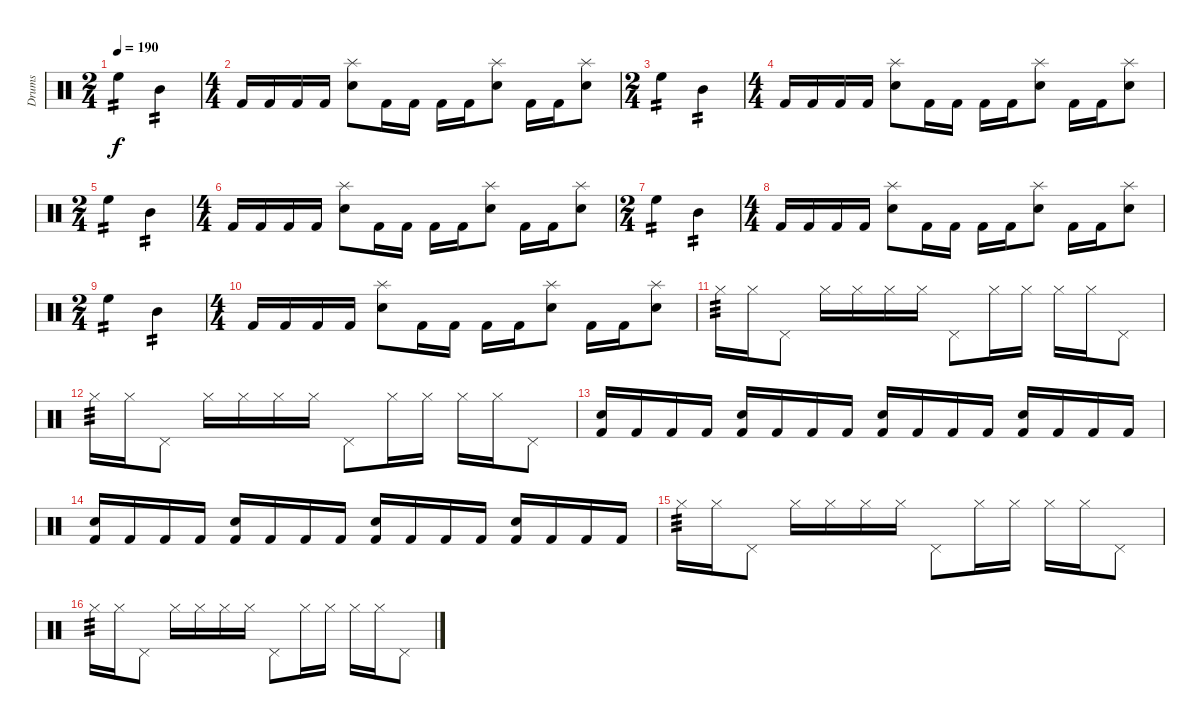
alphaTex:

\track ("Drums" "Drums") {instrument percussion}
\staff {score}
\articulation defaults
\ts (2 4)
\tempo 190
\clef neutral
\ks c "High Floor Tom (hit)".4{tp 2 dy f} "Mid Tom (hit)".4{tp 2}
|
\ts (4 4)
"Kick (hit) 2".16 "Kick (hit) 2".16 "Kick (hit) 2".16 "Kick (hit) 2".16 ("Splash (hit)" "Snare (hit) 2").8 "Kick (hit) 2".16 "Kick (hit) 2".16 "Kick (hit) 2".16 "Kick (hit) 2".16 ("Splash (hit)" "Snare (hit) 2").8 "Kick (hit) 2".16 "Kick (hit) 2".16 ("Splash (hit)" "Snare (hit) 2").8 |
\ts (2 4)
"High Floor Tom (hit)".4{tp 2} "Mid Tom (hit)".4{tp 2} |
\ts (4 4)
"Kick (hit) 2".16 "Kick (hit) 2".16 "Kick (hit) 2".16 "Kick (hit) 2".16 ("Splash (hit)" "Snare (hit) 2").8 "Kick (hit) 2".16 "Kick (hit) 2".16 "Kick (hit) 2".16 "Kick (hit) 2".16 ("Splash (hit)" "Snare (hit) 2").8 "Kick (hit) 2".16 "Kick (hit) 2".16 ("Splash (hit)" "Snare (hit) 2").8 |
\ts (2 4)
"High Floor Tom (hit)".4{tp 2} "Mid Tom (hit)".4{tp 2} |
\ts (4 4)
"Kick (hit) 2".16 "Kick (hit) 2".16 "Kick (hit) 2".16 "Kick (hit) 2".16 ("Splash (hit)" "Snare (hit) 2").8 "Kick (hit) 2".16 "Kick (hit) 2".16 "Kick (hit) 2".16 "Kick (hit) 2".16 ("Splash (hit)" "Snare (hit) 2").8 "Kick (hit) 2".16 "Kick (hit) 2".16 ("Splash (hit)" "Snare (hit) 2").8 |
\ts (2 4)
"High Floor Tom (hit)".4{tp 2} "Mid Tom (hit)".4{tp 2} |
\ts (4 4)
"Kick (hit) 2".16 "Kick (hit) 2".16 "Kick (hit) 2".16 "Kick (hit) 2".16 ("Splash (hit)" "Snare (hit) 2").8 "Kick (hit) 2".16 "Kick (hit) 2".16 "Kick (hit) 2".16 "Kick (hit) 2".16 ("Splash (hit)" "Snare (hit) 2").8 "Kick (hit) 2".16 "Kick (hit) 2".16 ("Splash (hit)" "Snare (hit) 2").8 |
\ts (2 4)
"High Floor Tom (hit)".4{tp 2} "Mid Tom (hit)".4{tp 2} |
\ts (4 4)
"Kick (hit) 2".16 "Kick (hit) 2".16 "Kick (hit) 2".16 "Kick (hit) 2".16 ("Splash (hit)" "Snare (hit) 2").8 "Kick (hit) 2".16 "Kick (hit) 2".16 "Kick (hit) 2".16 "Kick (hit) 2".16 ("Splash (hit)" "Snare (hit) 2").8 "Kick (hit) 2".16 "Kick (hit) 2".16 ("Splash (hit)" "Snare (hit) 2").8 |
"Hi-Hat (closed)".16{tp 3} "Hi-Hat (closed)".16 "Pedal Hi-Hat (hit)".8 "Hi-Hat (closed)".16 "Hi-Hat (closed)".16 "Hi-Hat (closed)".16 "Hi-Hat (closed)".16 "Pedal Hi-Hat (hit)".8 "Hi-Hat (closed)".16 "Hi-Hat (closed)".16 "Hi-Hat (closed)".16 "Hi-Hat (closed)".16 "Pedal Hi-Hat (hit)".8 |
"Hi-Hat (closed)".16{tp 3} "Hi-Hat (closed)".16 "Pedal Hi-Hat (hit)".8 "Hi-Hat (closed)".16 "Hi-Hat (closed)".16 "Hi-Hat (closed)".16 "Hi-Hat (closed)".16 "Pedal Hi-Hat (hit)".8 "Hi-Hat (closed)".16 "Hi-Hat (closed)".16 "Hi-Hat (closed)".16 "Hi-Hat (closed)".16 "Pedal Hi-Hat (hit)".8 |
("Snare (hit) 2" "Kick (hit) 2").16 "Kick (hit) 2".16 "Kick (hit) 2".16 "Kick (hit) 2".16 ("Snare (hit) 2" "Kick (hit) 2").16 "Kick (hit) 2".16 "Kick (hit) 2".16 "Kick (hit) 2".16 ("Snare (hit) 2" "Kick (hit) 2").16 "Kick (hit) 2".16 "Kick (hit) 2".16 "Kick (hit) 2".16 ("Snare (hit) 2" "Kick (hit) 2").16 "Kick (hit) 2".16 "Kick (hit) 2".16 "Kick (hit) 2".16 |
("Snare (hit) 2" "Kick (hit) 2").16 "Kick (hit) 2".16 "Kick (hit) 2".16 "Kick (hit) 2".16 ("Snare (hit) 2" "Kick (hit) 2").16 "Kick (hit) 2".16 "Kick (hit) 2".16 "Kick (hit) 2".16 ("Snare (hit) 2" "Kick (hit) 2").16 "Kick (hit) 2".16 "Kick (hit) 2".16 "Kick (hit) 2".16 ("Snare (hit) 2" "Kick (hit) 2").16 "Kick (hit) 2".16 "Kick (hit) 2".16 "Kick (hit) 2".16 |
"Hi-Hat (closed)".16{tp 3} "Hi-Hat (closed)".16 "Pedal Hi-Hat (hit)".8 "Hi-Hat (closed)".16 "Hi-Hat (closed)".16 "Hi-Hat (closed)".16 "Hi-Hat (closed)".16 "Pedal Hi-Hat (hit)".8 "Hi-Hat (closed)".16 "Hi-Hat (closed)".16 "Hi-Hat (closed)".16 "Hi-Hat (closed)".16 "Pedal Hi-Hat (hit)".8 |
"Hi-Hat (closed)".16{tp 3} "Hi-Hat (closed)".16 "Pedal Hi-Hat (hit)".8 "Hi-Hat (closed)".16 "Hi-Hat (closed)".16 "Hi-Hat (closed)".16 "Hi-Hat (closed)".16 "Pedal Hi-Hat (hit)".8 "Hi-Hat (closed)".16 "Hi-Hat (closed)".16 "Hi-Hat (closed)".16 "Hi-Hat (closed)".16 "Pedal Hi-Hat (hit)".8
